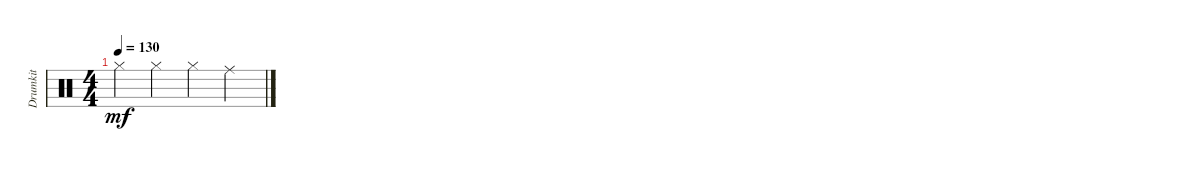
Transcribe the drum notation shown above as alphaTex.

\track ("Drumkit" "Drumkit") {instrument percussion}
\staff {score}
\articulation defaults
\ts (4 4)
\tempo 130
\clef neutral
\ks c "Hi-Hat (closed)".4{dy mf} "Hi-Hat (closed)".4 "Hi-Hat (closed)".4 "Ride (middle)".4
